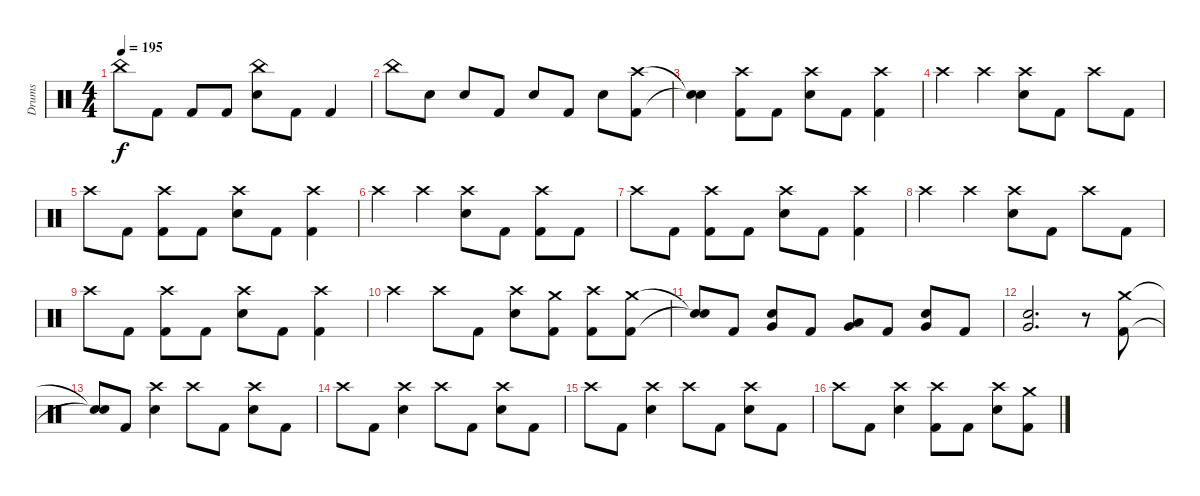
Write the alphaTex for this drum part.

\track ("Drums" "Drums") {instrument percussion}
\staff {score}
\articulation defaults
\ts (4 4)
\tempo 195
\clef neutral
\ks c "China (hit)".8{dy f} "Kick (hit) 2".8 "Kick (hit) 2".8 "Kick (hit) 2".8
("China (hit)" "Electric Snare (hit)").8 "Kick (hit) 2".8 "Kick (hit) 2".4 |
"China (hit)".8 "Electric Snare (hit)".8 "Electric Snare (hit)".8 "Kick (hit) 2".8 "Electric Snare (hit)".8 "Kick (hit) 2".8 "Electric Snare (hit)".8 ("Crash high (hit)" "Kick (hit) 2").8 |
("Snare (hit)"{t} "Snare (hit)"{t}).4 ("Crash high (hit)" "Kick (hit) 2").8 "Kick (hit) 2".8 ("Crash high (hit)" "Electric Snare (hit)").8 "Kick (hit) 2".8 ("Crash high (hit)" "Kick (hit) 2").4 |
"Crash high (hit)".4 "Crash high (hit)".4 ("Crash high (hit)" "Electric Snare (hit)").8 "Kick (hit) 2".8 "Crash high (hit)".8 "Kick (hit) 2".8 |
"Crash high (hit)".8 "Kick (hit) 2".8 ("Crash high (hit)" "Kick (hit) 2").8 "Kick (hit) 2".8 ("Crash high (hit)" "Electric Snare (hit)").8 "Kick (hit) 2".8 ("Crash high (hit)" "Kick (hit) 2").4 |
"Crash high (hit)".4 "Crash high (hit)".4 ("Crash high (hit)" "Electric Snare (hit)").8 "Kick (hit) 2".8 ("Crash high (hit)" "Kick (hit) 2").8 "Kick (hit) 2".8 |
"Crash high (hit)".8 "Kick (hit) 2".8 ("Crash high (hit)" "Kick (hit) 2").8 "Kick (hit) 2".8 ("Crash high (hit)" "Electric Snare (hit)").8 "Kick (hit) 2".8 ("Crash high (hit)" "Kick (hit) 2").4 |
"Crash high (hit)".4 "Crash high (hit)".4 ("Crash high (hit)" "Electric Snare (hit)").8 "Kick (hit) 2".8 "Crash high (hit)".8 "Kick (hit) 2".8 |
"Crash high (hit)".8 "Kick (hit) 2".8 ("Crash high (hit)" "Kick (hit) 2").8 "Kick (hit) 2".8 ("Crash high (hit)" "Electric Snare (hit)").8 "Kick (hit) 2".8 ("Crash high (hit)" "Kick (hit) 2").4 |
"Crash high (hit)".4 "Crash high (hit)".8 "Kick (hit) 2".8 ("Crash high (hit)" "Electric Snare (hit)").8 ("Crash medium (hit)" "Kick (hit) 2").8 ("Crash high (hit)" "Kick (hit) 2").8 ("Crash medium (hit)" "Kick (hit) 2").8 |
("Snare (hit)"{t} "Snare (hit)"{t}).8 "Kick (hit) 2".8 ("Very Low Tom (hit)" "Electric Snare (hit)").8 "Kick (hit) 2".8 ("Low Tom (hit)" "Very Low Tom (hit)").8 "Kick (hit) 2".8 ("Very Low Tom (hit)" "Electric Snare (hit)").8 "Kick (hit) 2".8 |
("Very Low Tom (hit)" "Electric Snare (hit)").2{d} r.8 ("Crash medium (hit)" "Kick (hit) 2").8 |
("Snare (hit)"{t} "Snare (hit)"{t}).8 "Kick (hit) 2".8 ("Crash high (hit)" "Electric Snare (hit)").4 "Crash high (hit)".8 "Kick (hit) 2".8 ("Crash high (hit)" "Electric Snare (hit)").8 "Kick (hit) 2".8 |
"Crash high (hit)".8 "Kick (hit) 2".8 ("Crash high (hit)" "Electric Snare (hit)").4 "Crash high (hit)".8 "Kick (hit) 2".8 ("Crash high (hit)" "Electric Snare (hit)").8 "Kick (hit) 2".8 |
"Crash high (hit)".8 "Kick (hit) 2".8 ("Crash high (hit)" "Electric Snare (hit)").4 "Crash high (hit)".8 "Kick (hit) 2".8 ("Crash high (hit)" "Electric Snare (hit)").8 "Kick (hit) 2".8 |
"Crash high (hit)".8 "Kick (hit) 2".8 ("Crash high (hit)" "Electric Snare (hit)").4 ("Crash high (hit)" "Kick (hit) 2").8 "Kick (hit) 2".8 ("Crash high (hit)" "Electric Snare (hit)").8 ("Crash medium (hit)" "Kick (hit) 2").8
